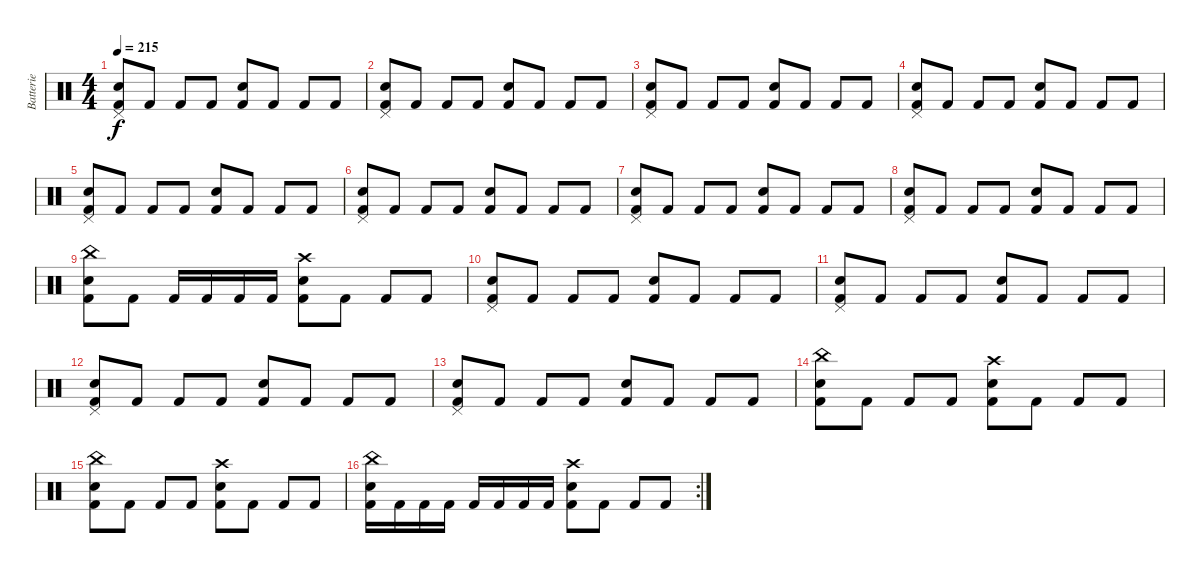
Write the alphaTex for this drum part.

\track ("Batterie" "Batterie") {instrument percussion}
\staff {score}
\articulation defaults
\ts (4 4)
\tempo 215
\clef neutral
\ks c
("Pedal Hi-Hat (hit)" "Snare (hit) 2" "Kick (hit) 2").8{dy f} "Kick (hit) 2".8 "Kick (hit) 2".8 "Kick (hit) 2".8 ("Snare (hit) 2" "Kick (hit) 2").8 "Kick (hit) 2".8 "Kick (hit) 2".8 "Kick (hit) 2".8 |
("Pedal Hi-Hat (hit)" "Snare (hit) 2" "Kick (hit) 2").8 "Kick (hit) 2".8 "Kick (hit) 2".8 "Kick (hit) 2".8 ("Snare (hit) 2" "Kick (hit) 2").8 "Kick (hit) 2".8 "Kick (hit) 2".8 "Kick (hit) 2".8 |
("Pedal Hi-Hat (hit)" "Snare (hit) 2" "Kick (hit) 2").8 "Kick (hit) 2".8 "Kick (hit) 2".8 "Kick (hit) 2".8 ("Snare (hit) 2" "Kick (hit) 2").8 "Kick (hit) 2".8 "Kick (hit) 2".8 "Kick (hit) 2".8 |
("Pedal Hi-Hat (hit)" "Snare (hit) 2" "Kick (hit) 2").8 "Kick (hit) 2".8 "Kick (hit) 2".8 "Kick (hit) 2".8 ("Snare (hit) 2" "Kick (hit) 2").8 "Kick (hit) 2".8 "Kick (hit) 2".8 "Kick (hit) 2".8 |
("Pedal Hi-Hat (hit)" "Snare (hit) 2" "Kick (hit) 2").8 "Kick (hit) 2".8 "Kick (hit) 2".8 "Kick (hit) 2".8 ("Snare (hit) 2" "Kick (hit) 2").8 "Kick (hit) 2".8 "Kick (hit) 2".8 "Kick (hit) 2".8 |
("Pedal Hi-Hat (hit)" "Snare (hit) 2" "Kick (hit) 2").8 "Kick (hit) 2".8 "Kick (hit) 2".8 "Kick (hit) 2".8 ("Snare (hit) 2" "Kick (hit) 2").8 "Kick (hit) 2".8 "Kick (hit) 2".8 "Kick (hit) 2".8 |
("Pedal Hi-Hat (hit)" "Snare (hit) 2" "Kick (hit) 2").8 "Kick (hit) 2".8 "Kick (hit) 2".8 "Kick (hit) 2".8 ("Snare (hit) 2" "Kick (hit) 2").8 "Kick (hit) 2".8 "Kick (hit) 2".8 "Kick (hit) 2".8 |
("Pedal Hi-Hat (hit)" "Snare (hit) 2" "Kick (hit) 2").8 "Kick (hit) 2".8 "Kick (hit) 2".8 "Kick (hit) 2".8 ("Snare (hit) 2" "Kick (hit) 2").8 "Kick (hit) 2".8 "Kick (hit) 2".8 "Kick (hit) 2".8 |
("China (hit)" "Snare (hit) 2" "Kick (hit) 2").8 "Kick (hit) 2".8 "Kick (hit) 2".16 "Kick (hit) 2".16 "Kick (hit) 2".16 "Kick (hit) 2".16 ("Crash high (hit)" "Snare (hit) 2" "Kick (hit) 2").8 "Kick (hit) 2".8 "Kick (hit) 2".8 "Kick (hit) 2".8 |
("Pedal Hi-Hat (hit)" "Snare (hit) 2" "Kick (hit) 2").8 "Kick (hit) 2".8 "Kick (hit) 2".8 "Kick (hit) 2".8 ("Snare (hit) 2" "Kick (hit) 2").8 "Kick (hit) 2".8 "Kick (hit) 2".8 "Kick (hit) 2".8 |
("Pedal Hi-Hat (hit)" "Snare (hit) 2" "Kick (hit) 2").8 "Kick (hit) 2".8 "Kick (hit) 2".8 "Kick (hit) 2".8 ("Snare (hit) 2" "Kick (hit) 2").8 "Kick (hit) 2".8 "Kick (hit) 2".8 "Kick (hit) 2".8 |
("Pedal Hi-Hat (hit)" "Snare (hit) 2" "Kick (hit) 2").8 "Kick (hit) 2".8 "Kick (hit) 2".8 "Kick (hit) 2".8 ("Snare (hit) 2" "Kick (hit) 2").8 "Kick (hit) 2".8 "Kick (hit) 2".8 "Kick (hit) 2".8 |
("Pedal Hi-Hat (hit)" "Snare (hit) 2" "Kick (hit) 2").8 "Kick (hit) 2".8 "Kick (hit) 2".8 "Kick (hit) 2".8 ("Snare (hit) 2" "Kick (hit) 2").8 "Kick (hit) 2".8 "Kick (hit) 2".8 "Kick (hit) 2".8 |
("China (hit)" "Snare (hit) 2" "Kick (hit) 2").8 "Kick (hit) 2".8 "Kick (hit) 2".8 "Kick (hit) 2".8 ("Crash high (hit)" "Snare (hit) 2" "Kick (hit) 2").8 "Kick (hit) 2".8 "Kick (hit) 2".8 "Kick (hit) 2".8 |
("China (hit)" "Snare (hit) 2" "Kick (hit) 2").8 "Kick (hit) 2".8 "Kick (hit) 2".8 "Kick (hit) 2".8 ("Crash high (hit)" "Snare (hit) 2" "Kick (hit) 2").8 "Kick (hit) 2".8 "Kick (hit) 2".8 "Kick (hit) 2".8 |
\rc 2
("China (hit)" "Snare (hit) 2" "Kick (hit) 2").16 "Kick (hit) 2".16 "Kick (hit) 2".16 "Kick (hit) 2".16 "Kick (hit) 2".16 "Kick (hit) 2".16 "Kick (hit) 2".16 "Kick (hit) 2".16 ("Crash high (hit)" "Snare (hit) 2" "Kick (hit) 2").8 "Kick (hit) 2".8 "Kick (hit) 2".8 "Kick (hit) 2".8
